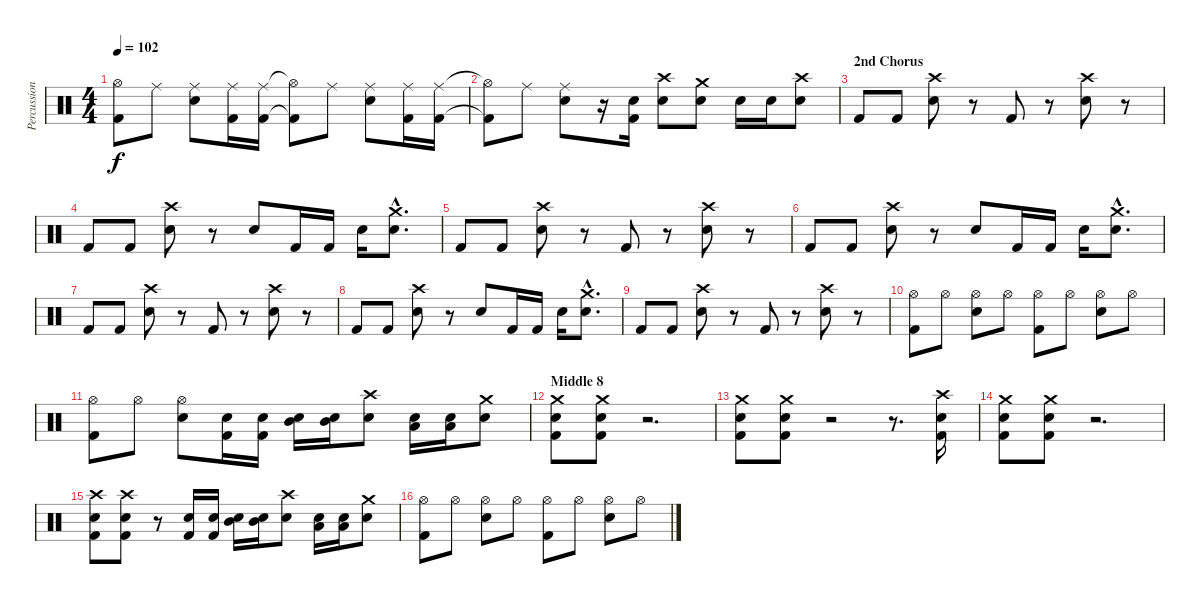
\track ("Percussion" "Percussion") {instrument percussion}
\staff {score}
\articulation defaults
\ts (4 4)
\tempo 102
\clef neutral
\ks c
("Hi-Hat (open)"{t} "Kick (hit) 2"{t}).8{dy f} "Ride (middle)".8 ("Ride (middle)" "Snare (hit) 2").8 ("Ride (middle)" "Kick (hit) 2").16 ("Ride (middle)" "Kick (hit) 2").16 ("Hi-Hat (open)"{t} "Kick (hit) 2"{t}).8 "Ride (middle)".8 ("Ride (middle)" "Snare (hit) 2").8 ("Ride (middle)" "Kick (hit) 2").16 ("Ride (middle)" "Kick (hit) 2").16 |
("Hi-Hat (open)"{t} "Kick (hit) 2"{t}).8 "Ride (middle)".8 ("Ride (middle)" "Snare (hit) 2").8 r.16 ("Snare (hit) 2" "Kick (hit) 2").16 ("Crash high (hit)" "Snare (hit) 2").8 ("Crash medium (hit)" "Snare (hit) 2").8 "Snare (hit) 2".16 "Snare (hit) 2".16 ("Crash high (hit)" "Snare (hit) 2").8 |
\section ("" "2nd Chorus")
"Kick (hit) 2".8 "Kick (hit) 2".8 ("Crash high (hit)" "Snare (hit) 2").8 r.8 "Kick (hit) 2".8 r.8 ("Crash high (hit)" "Snare (hit) 2").8 r.8 |
"Kick (hit) 2".8 "Kick (hit) 2".8 ("Crash high (hit)" "Snare (hit) 2").8 r.8 "Snare (hit) 2".8 "Kick (hit) 2".16 "Kick (hit) 2".16 "Snare (hit) 2".16 ("Crash medium (hit)"{hac} "Snare (hit) 2"{hac}).8{d} |
"Kick (hit) 2".8 "Kick (hit) 2".8 ("Crash high (hit)" "Snare (hit) 2").8 r.8 "Kick (hit) 2".8 r.8 ("Crash high (hit)" "Snare (hit) 2").8 r.8 |
"Kick (hit) 2".8 "Kick (hit) 2".8 ("Crash high (hit)" "Snare (hit) 2").8 r.8 "Snare (hit) 2".8 "Kick (hit) 2".16 "Kick (hit) 2".16 "Snare (hit) 2".16 ("Crash medium (hit)"{hac} "Snare (hit) 2"{hac}).8{d} |
"Kick (hit) 2".8 "Kick (hit) 2".8 ("Crash high (hit)" "Snare (hit) 2").8 r.8 "Kick (hit) 2".8 r.8 ("Crash high (hit)" "Snare (hit) 2").8 r.8 |
"Kick (hit) 2".8 "Kick (hit) 2".8 ("Crash high (hit)" "Snare (hit) 2").8 r.8 "Snare (hit) 2".8 "Kick (hit) 2".16 "Kick (hit) 2".16 "Snare (hit) 2".16 ("Crash medium (hit)"{hac} "Snare (hit) 2"{hac}).8{d} |
"Kick (hit) 2".8 "Kick (hit) 2".8 ("Crash high (hit)" "Snare (hit) 2").8 r.8 "Kick (hit) 2".8 r.8 ("Crash high (hit)" "Snare (hit) 2").8 r.8 |
("Hi-Hat (open)" "Kick (hit) 2").8 "Hi-Hat (open)".8 ("Hi-Hat (open)" "Snare (hit) 2").8 "Hi-Hat (open)".8 ("Hi-Hat (open)" "Kick (hit) 2").8 "Hi-Hat (open)".8 ("Hi-Hat (open)" "Snare (hit) 2").8 "Hi-Hat (open)".8 |
("Hi-Hat (open)" "Kick (hit) 2").8 "Hi-Hat (open)".8 ("Hi-Hat (open)" "Snare (hit) 2").8 ("Snare (hit) 2" "Kick (hit) 2").16 ("Snare (hit) 2" "Kick (hit) 2").16 ("Mid Tom (hit)" "Snare (hit) 2").16 ("Mid Tom (hit)" "Snare (hit) 2").16 ("Crash high (hit)" "Snare (hit) 2").8 ("Low Tom (hit)" "Snare (hit) 2").16 ("Low Tom (hit)" "Snare (hit) 2").16 ("Crash medium (hit)" "Snare (hit) 2").8 |
\section ("" "Middle 8")
("Crash medium (hit)" "Snare (hit) 2" "Kick (hit) 2").8 ("Crash medium (hit)" "Snare (hit) 2" "Kick (hit) 2").8 r.2{d} |
("Crash medium (hit)" "Snare (hit) 2" "Kick (hit) 2").8 ("Crash medium (hit)" "Snare (hit) 2" "Kick (hit) 2").8 r.2 r.8{d} ("Crash high (hit)" "Snare (hit) 2" "Kick (hit) 2").16 |
("Crash medium (hit)" "Snare (hit) 2" "Kick (hit) 2").8 ("Crash medium (hit)" "Snare (hit) 2" "Kick (hit) 2").8 r.2{d} |
("Crash high (hit)" "Snare (hit) 2" "Kick (hit) 2").8 ("Crash high (hit)" "Snare (hit) 2" "Kick (hit) 2").8 r.8 ("Snare (hit) 2" "Kick (hit) 2").16 ("Snare (hit) 2" "Kick (hit) 2").16 ("Mid Tom (hit)" "Snare (hit) 2").16 ("Mid Tom (hit)" "Snare (hit) 2").16 ("Crash high (hit)" "Snare (hit) 2").8 ("Low Tom (hit)" "Snare (hit) 2").16 ("Low Tom (hit)" "Snare (hit) 2").16 ("Crash medium (hit)" "Snare (hit) 2").8 |
("Hi-Hat (open)" "Kick (hit) 2").8 "Hi-Hat (open)".8 ("Hi-Hat (open)" "Snare (hit) 2").8 "Hi-Hat (open)".8 ("Hi-Hat (open)" "Kick (hit) 2").8 "Hi-Hat (open)".8 ("Hi-Hat (open)" "Snare (hit) 2").8 "Hi-Hat (open)".8
